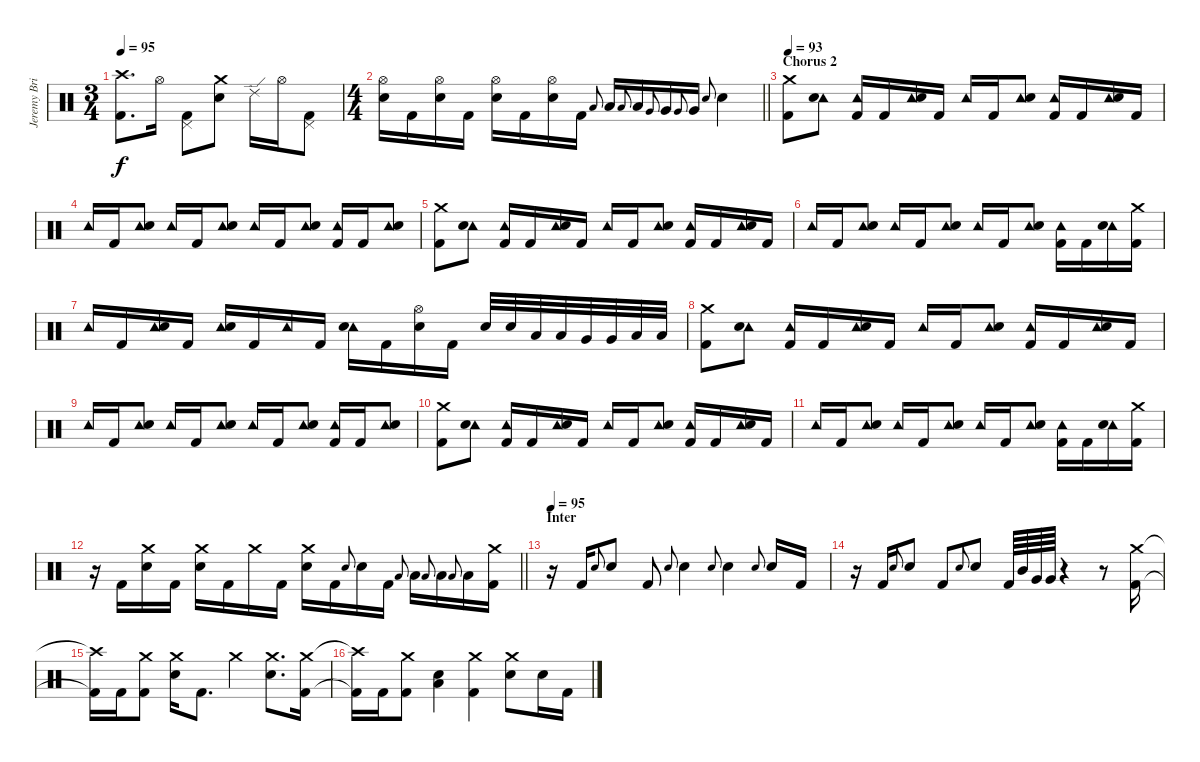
\track ("Jeremy Brian [Drums]" "Jeremy Bri") {instrument percussion}
\staff {score}
\articulation defaults
\ts (3 4)
\tempo 95
\clef neutral
\ks c
("Crash high (hit)" "Kick (hit) 2").8{d dy f} "Hi-Hat (open)".16 ("Pedal Hi-Hat (hit)" "Kick (hit) 2").8 ("Crash medium (hit)" "Electric Snare (hit)").8 "Ride (edge) 2".16 "Hi-Hat (open)".16 ("Pedal Hi-Hat (hit)" "Kick (hit) 2").8 |
\ts (4 4)
\barLineRight lightlight
("Hi-Hat (open)" "Electric Snare (hit)").16 "Kick (hit) 2".16 ("Hi-Hat (open)" "Electric Snare (hit)").16 "Kick (hit) 2".16 ("Hi-Hat (open)" "Electric Snare (hit)").16 "Kick (hit) 2".16 ("Hi-Hat (open)" "Electric Snare (hit)").16 "Kick (hit) 2".16 "Low Tom (hit)".8{gr onbeat} "Low Tom (hit)".16 "Low Floor Tom (hit)".8{gr onbeat} "Low Floor Tom (hit)".16 "Very Low Tom (hit)".8{gr onbeat} "Very Low Tom (hit)".16 "Very Low Tom (hit)".8{gr onbeat} "Very Low Tom (hit)".16 "Electric Snare (hit)".8{gr onbeat} "Electric Snare (hit)".4 |
\section ("" "Chorus 2")
\tempo 93
("Crash medium (hit)" "Kick (hit) 2").8 ("Tambourine (hit)" "Electric Snare (hit)").8 ("Tambourine (hit)" "Kick (hit) 2").16 "Kick (hit) 2".16 ("Tambourine (hit)" "Electric Snare (hit)").16 "Kick (hit) 2".16 "Tambourine (hit)".16 "Kick (hit) 2".16 ("Tambourine (hit)" "Electric Snare (hit)").8 ("Tambourine (hit)" "Kick (hit) 2").16 "Kick (hit) 2".16 ("Tambourine (hit)" "Electric Snare (hit)").16 "Kick (hit) 2".16 |
"Tambourine (hit)".16 "Kick (hit) 2".16 ("Tambourine (hit)" "Electric Snare (hit)").8 "Tambourine (hit)".16 "Kick (hit) 2".16 ("Tambourine (hit)" "Electric Snare (hit)").8 "Tambourine (hit)".16 "Kick (hit) 2".16 ("Tambourine (hit)" "Electric Snare (hit)").8 ("Tambourine (hit)" "Kick (hit) 2").16 "Kick (hit) 2".16 ("Tambourine (hit)" "Electric Snare (hit)").8 |
("Crash medium (hit)" "Kick (hit) 2").8 ("Tambourine (hit)" "Electric Snare (hit)").8 ("Tambourine (hit)" "Kick (hit) 2").16 "Kick (hit) 2".16 ("Tambourine (hit)" "Electric Snare (hit)").16 "Kick (hit) 2".16 "Tambourine (hit)".16 "Kick (hit) 2".16 ("Tambourine (hit)" "Electric Snare (hit)").8 ("Tambourine (hit)" "Kick (hit) 2").16 "Kick (hit) 2".16 ("Tambourine (hit)" "Electric Snare (hit)").16 "Kick (hit) 2".16 |
"Tambourine (hit)".16 "Kick (hit) 2".16 ("Tambourine (hit)" "Electric Snare (hit)").8 "Tambourine (hit)".16 "Kick (hit) 2".16 ("Tambourine (hit)" "Electric Snare (hit)").8 "Tambourine (hit)".16 "Kick (hit) 2".16 ("Tambourine (hit)" "Electric Snare (hit)").8 ("Tambourine (hit)" "Kick (hit) 2").16 "Kick (hit) 2".16 ("Tambourine (hit)" "Electric Snare (hit)").16 ("Crash medium (hit)" "Kick (hit) 2").16 |
"Tambourine (hit)".16 "Kick (hit) 2".16 ("Tambourine (hit)" "Electric Snare (hit)").16 "Kick (hit) 2".16 ("Tambourine (hit)" "Electric Snare (hit)").16 "Kick (hit) 2".16 "Tambourine (hit)".16 "Kick (hit) 2".16 ("Tambourine (hit)" "Electric Snare (hit)").16 "Kick (hit) 2".16 ("Hi-Hat (open)" "Electric Snare (hit)").16 "Kick (hit) 2".16 "Electric Snare (hit)".32 "Electric Snare (hit)".32 "Low Tom (hit)".32{balance 3} "Low Tom (hit)".32 "Very Low Tom (hit)".32{balance 14} "Very Low Tom (hit)".32 "Low Floor Tom (hit)".32 "Low Floor Tom (hit)".32 |
("Crash medium (hit)" "Kick (hit) 2").8{balance 8} ("Tambourine (hit)" "Electric Snare (hit)").8 ("Tambourine (hit)" "Kick (hit) 2").16 "Kick (hit) 2".16 ("Tambourine (hit)" "Electric Snare (hit)").16 "Kick (hit) 2".16 "Tambourine (hit)".16 "Kick (hit) 2".16 ("Tambourine (hit)" "Electric Snare (hit)").8 ("Tambourine (hit)" "Kick (hit) 2").16 "Kick (hit) 2".16 ("Tambourine (hit)" "Electric Snare (hit)").16 "Kick (hit) 2".16 |
"Tambourine (hit)".16 "Kick (hit) 2".16 ("Tambourine (hit)" "Electric Snare (hit)").8 "Tambourine (hit)".16 "Kick (hit) 2".16 ("Tambourine (hit)" "Electric Snare (hit)").8 "Tambourine (hit)".16 "Kick (hit) 2".16 ("Tambourine (hit)" "Electric Snare (hit)").8 ("Tambourine (hit)" "Kick (hit) 2").16 "Kick (hit) 2".16 ("Tambourine (hit)" "Electric Snare (hit)").8 |
("Crash medium (hit)" "Kick (hit) 2").8 ("Tambourine (hit)" "Electric Snare (hit)").8 ("Tambourine (hit)" "Kick (hit) 2").16 "Kick (hit) 2".16 ("Tambourine (hit)" "Electric Snare (hit)").16 "Kick (hit) 2".16 "Tambourine (hit)".16 "Kick (hit) 2".16 ("Tambourine (hit)" "Electric Snare (hit)").8 ("Tambourine (hit)" "Kick (hit) 2").16 "Kick (hit) 2".16 ("Tambourine (hit)" "Electric Snare (hit)").16 "Kick (hit) 2".16 |
"Tambourine (hit)".16 "Kick (hit) 2".16 ("Tambourine (hit)" "Electric Snare (hit)").8 "Tambourine (hit)".16 "Kick (hit) 2".16 ("Tambourine (hit)" "Electric Snare (hit)").8 "Tambourine (hit)".16 "Kick (hit) 2".16 ("Tambourine (hit)" "Electric Snare (hit)").8 ("Tambourine (hit)" "Kick (hit) 2").16 "Kick (hit) 2".16 ("Tambourine (hit)" "Electric Snare (hit)").16 ("Crash medium (hit)" "Kick (hit) 2").16 |
\barLineRight lightlight
r.16 "Kick (hit) 2".16 ("Crash medium (hit)" "Electric Snare (hit)").16 "Kick (hit) 2".16 ("Crash medium (hit)" "Electric Snare (hit)").16 "Kick (hit) 2".16 "Crash medium (hit)".16 "Kick (hit) 2".16 ("Crash medium (hit)" "Electric Snare (hit)").16 "Kick (hit) 2".16 "Electric Snare (hit)".8{gr onbeat} "Electric Snare (hit)".16 "Kick (hit) 2".16 "Low Tom (hit)".8{gr onbeat} "Low Tom (hit)".16{balance 0} "Low Tom (hit)".8{gr onbeat} "Low Tom (hit)".16 "Low Tom (hit)".8{gr onbeat} "Low Tom (hit)".16 ("Crash medium (hit)" "Kick (hit) 2").16{balance 8} |
\section ("" "Inter")
\tempo 95
r.16 "Kick (hit) 2".16 "Electric Snare (hit)".8{gr onbeat} "Electric Snare (hit)".8 "Kick (hit) 2".8 "Electric Snare (hit)".8{gr onbeat} "Electric Snare (hit)".4 "Electric Snare (hit)".8{gr onbeat} "Electric Snare (hit)".4 "Electric Snare (hit)".8{gr onbeat} "Electric Snare (hit)".16 "Kick (hit) 2".16 |
r.16 "Kick (hit) 2".16 "Electric Snare (hit)".8{gr onbeat} "Electric Snare (hit)".8 "Kick (hit) 2".8 "Electric Snare (hit)".8{gr onbeat} "Electric Snare (hit)".8 "Kick (hit) 2".64 "Mid Tom (hit)".64 "Very Low Tom (hit)".64 "Very Low Tom (hit)".64 r.4 r.8 ("Crash medium (hit)" "Kick (hit) 2").16 |
("Crash high (hit)"{t} "Kick (hit) 2"{t}).16 "Kick (hit) 2".16 ("Crash medium (hit)" "Kick (hit) 2").8 ("Crash medium (hit)" "Electric Snare (hit)").16 "Kick (hit) 2".8{d} "Crash medium (hit)".4 ("Crash medium (hit)" "Electric Snare (hit)").8{d} ("Crash medium (hit)" "Kick (hit) 2").16 |
("Crash high (hit)"{t} "Kick (hit) 2"{t}).16 "Kick (hit) 2".16 ("Crash medium (hit)" "Kick (hit) 2").8 ("Low Floor Tom (hit)" "Electric Snare (hit)").4 ("Crash medium (hit)" "Kick (hit) 2").4 ("Crash medium (hit)" "Electric Snare (hit)").8 "Electric Snare (hit)".16 "Kick (hit) 2".16
